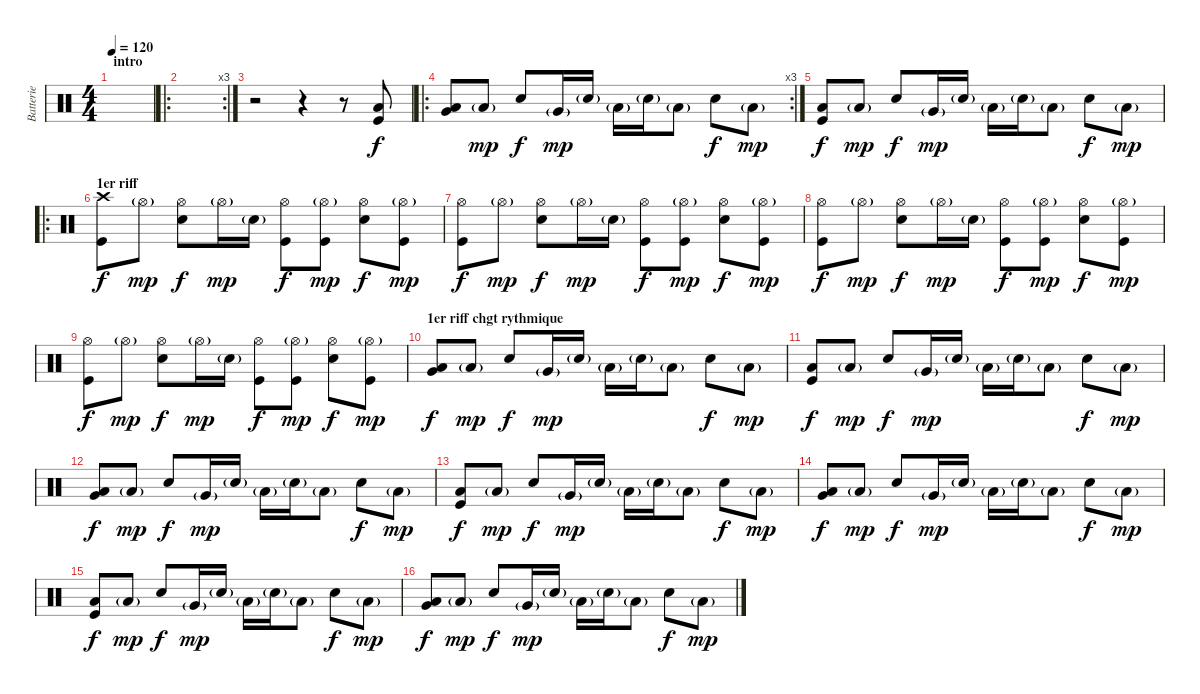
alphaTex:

\track ("Batterie" "Batterie") {instrument percussion}
\staff {score}
\articulation defaults
\ts (4 4)
\section ("" "intro")
\tempo 120
\clef neutral
\ks c
|
\ro
\rc 3
|
r.2 r.4 r.8 ("Low Floor Tom (hit)" "Kick (hit)").8 |
\ro
\rc 3
("Very Low Tom (hit)" "Low Floor Tom (hit)").8 "Low Floor Tom (hit)"{g}.8{dy mp} "Electric Snare (hit)".8{dy f} "Very Low Tom (hit)"{g}.16{dy mp} "Snare (hit) 2"{g}.16 "Low Floor Tom (hit)"{g}.16 "Snare (hit) 2"{g}.16 "Low Floor Tom (hit)"{g}.8 "Electric Snare (hit)".8{dy f} "Low Floor Tom (hit)"{g}.8{dy mp} |
("Kick (hit)" "Low Floor Tom (hit)").8{dy f} "Low Floor Tom (hit)"{g}.8{dy mp} "Electric Snare (hit)".8{dy f} "Very Low Tom (hit)"{g}.16{dy mp} "Snare (hit) 2"{g}.16 "Low Floor Tom (hit)"{g}.16 "Snare (hit) 2"{g}.16 "Low Floor Tom (hit)"{g}.8 "Electric Snare (hit)".8{dy f} "Low Floor Tom (hit)"{g}.8{dy mp} |
\ro
\section ("" "1er riff")
("Crash high (hit)" "Kick (hit)").8{dy f} "Hi-Hat (open)"{g}.8{dy mp} ("Hi-Hat (open)" "Snare (hit) 2").8{dy f} "Hi-Hat (open)"{g}.16{dy mp} "Snare (hit) 2"{g}.16 ("Hi-Hat (open)" "Kick (hit)").8{dy f} ("Hi-Hat (open)"{g} "Kick (hit)").8{dy mp} ("Hi-Hat (open)" "Snare (hit) 2").8{dy f} ("Hi-Hat (open)"{g} "Kick (hit)").8{dy mp} |
("Hi-Hat (open)" "Kick (hit)").8{dy f} "Hi-Hat (open)"{g}.8{dy mp} ("Hi-Hat (open)" "Snare (hit) 2").8{dy f} "Hi-Hat (open)"{g}.16{dy mp} "Snare (hit) 2"{g}.16 ("Hi-Hat (open)" "Kick (hit)").8{dy f} ("Hi-Hat (open)"{g} "Kick (hit)").8{dy mp} ("Hi-Hat (open)" "Snare (hit) 2").8{dy f} ("Hi-Hat (open)"{g} "Kick (hit)").8{dy mp} |
("Hi-Hat (open)" "Kick (hit)").8{dy f} "Hi-Hat (open)"{g}.8{dy mp} ("Hi-Hat (open)" "Snare (hit) 2").8{dy f} "Hi-Hat (open)"{g}.16{dy mp} "Snare (hit) 2"{g}.16 ("Hi-Hat (open)" "Kick (hit)").8{dy f} ("Hi-Hat (open)"{g} "Kick (hit)").8{dy mp} ("Hi-Hat (open)" "Snare (hit) 2").8{dy f} ("Hi-Hat (open)"{g} "Kick (hit)").8{dy mp} |
("Hi-Hat (open)" "Kick (hit)").8{dy f} "Hi-Hat (open)"{g}.8{dy mp} ("Hi-Hat (open)" "Snare (hit) 2").8{dy f} "Hi-Hat (open)"{g}.16{dy mp} "Snare (hit) 2"{g}.16 ("Hi-Hat (open)" "Kick (hit)").8{dy f} ("Hi-Hat (open)"{g} "Kick (hit)").8{dy mp} ("Hi-Hat (open)" "Snare (hit) 2").8{dy f} ("Hi-Hat (open)"{g} "Kick (hit)").8{dy mp} |
\section ("" "1er riff chgt rythmique")
("Very Low Tom (hit)" "Low Floor Tom (hit)").8{dy f} "Low Floor Tom (hit)"{g}.8{dy mp} "Electric Snare (hit)".8{dy f} "Very Low Tom (hit)"{g}.16{dy mp} "Snare (hit) 2"{g}.16 "Low Floor Tom (hit)"{g}.16 "Snare (hit) 2"{g}.16 "Low Floor Tom (hit)"{g}.8 "Electric Snare (hit)".8{dy f} "Low Floor Tom (hit)"{g}.8{dy mp} |
("Kick (hit)" "Low Floor Tom (hit)").8{dy f} "Low Floor Tom (hit)"{g}.8{dy mp} "Electric Snare (hit)".8{dy f} "Very Low Tom (hit)"{g}.16{dy mp} "Snare (hit) 2"{g}.16 "Low Floor Tom (hit)"{g}.16 "Snare (hit) 2"{g}.16 "Low Floor Tom (hit)"{g}.8 "Electric Snare (hit)".8{dy f} "Low Floor Tom (hit)"{g}.8{dy mp} |
("Very Low Tom (hit)" "Low Floor Tom (hit)").8{dy f} "Low Floor Tom (hit)"{g}.8{dy mp} "Electric Snare (hit)".8{dy f} "Very Low Tom (hit)"{g}.16{dy mp} "Snare (hit) 2"{g}.16 "Low Floor Tom (hit)"{g}.16 "Snare (hit) 2"{g}.16 "Low Floor Tom (hit)"{g}.8 "Electric Snare (hit)".8{dy f} "Low Floor Tom (hit)"{g}.8{dy mp} |
("Kick (hit)" "Low Floor Tom (hit)").8{dy f} "Low Floor Tom (hit)"{g}.8{dy mp} "Electric Snare (hit)".8{dy f} "Very Low Tom (hit)"{g}.16{dy mp} "Snare (hit) 2"{g}.16 "Low Floor Tom (hit)"{g}.16 "Snare (hit) 2"{g}.16 "Low Floor Tom (hit)"{g}.8 "Electric Snare (hit)".8{dy f} "Low Floor Tom (hit)"{g}.8{dy mp} |
("Very Low Tom (hit)" "Low Floor Tom (hit)").8{dy f} "Low Floor Tom (hit)"{g}.8{dy mp} "Electric Snare (hit)".8{dy f} "Very Low Tom (hit)"{g}.16{dy mp} "Snare (hit) 2"{g}.16 "Low Floor Tom (hit)"{g}.16 "Snare (hit) 2"{g}.16 "Low Floor Tom (hit)"{g}.8 "Electric Snare (hit)".8{dy f} "Low Floor Tom (hit)"{g}.8{dy mp} |
("Kick (hit)" "Low Floor Tom (hit)").8{dy f} "Low Floor Tom (hit)"{g}.8{dy mp} "Electric Snare (hit)".8{dy f} "Very Low Tom (hit)"{g}.16{dy mp} "Snare (hit) 2"{g}.16 "Low Floor Tom (hit)"{g}.16 "Snare (hit) 2"{g}.16 "Low Floor Tom (hit)"{g}.8 "Electric Snare (hit)".8{dy f} "Low Floor Tom (hit)"{g}.8{dy mp} |
("Very Low Tom (hit)" "Low Floor Tom (hit)").8{dy f} "Low Floor Tom (hit)"{g}.8{dy mp} "Electric Snare (hit)".8{dy f} "Very Low Tom (hit)"{g}.16{dy mp} "Snare (hit) 2"{g}.16 "Low Floor Tom (hit)"{g}.16 "Snare (hit) 2"{g}.16 "Low Floor Tom (hit)"{g}.8 "Electric Snare (hit)".8{dy f} "Low Floor Tom (hit)"{g}.8{dy mp}
